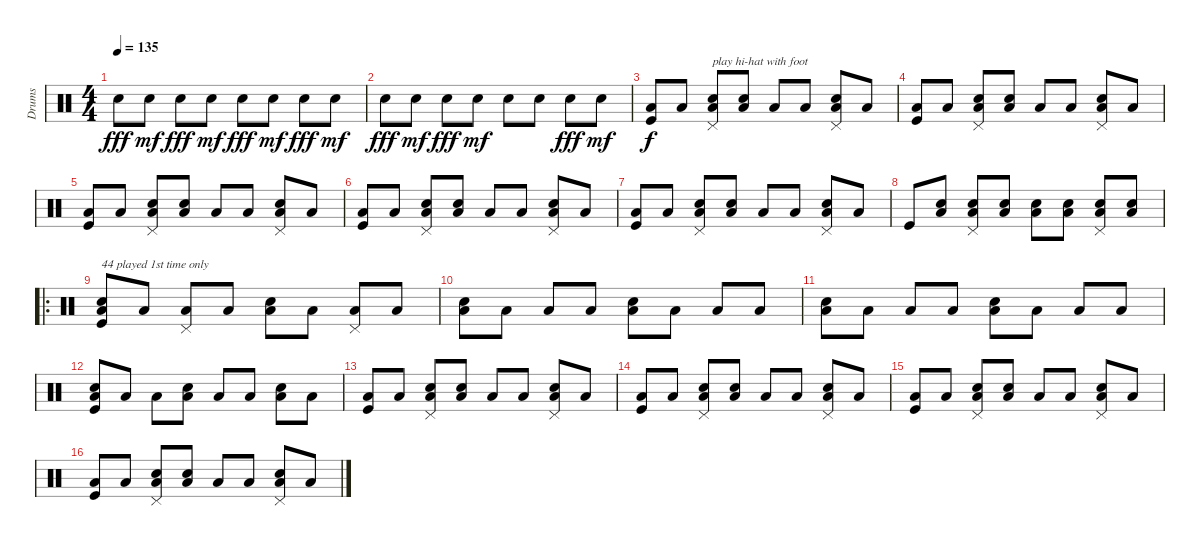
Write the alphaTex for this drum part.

\track ("Drums" "Drums") {instrument percussion}
\staff {score}
\articulation defaults
\ts (4 4)
\tempo 135
\clef neutral
\ks c "Snare (hit) 2".8{dy fff} "Snare (hit) 2".8{dy mf} "Snare (hit) 2".8{dy fff} "Snare (hit) 2".8{dy mf} "Snare (hit) 2".8{dy fff} "Snare (hit) 2".8{dy mf} "Snare (hit) 2".8{dy fff} "Snare (hit) 2".8{dy mf}
|
"Snare (hit) 2".8{dy fff} "Snare (hit) 2".8{dy mf} "Snare (hit) 2".8{dy fff} "Snare (hit) 2".8{dy mf} "Snare (hit) 2".8 "Snare (hit) 2".8 "Snare (hit) 2".8{dy fff} "Snare (hit) 2".8{dy mf} |
("Low Floor Tom (hit)" "Kick (hit)").8{dy f} "Low Floor Tom (hit)".8 ("Pedal Hi-Hat (hit)" "Snare (hit) 2" "Low Floor Tom (hit)").8{txt "play hi-hat with foot"} ("Snare (hit) 2" "Low Floor Tom (hit)").8 "Low Floor Tom (hit)".8 "Low Floor Tom (hit)".8 ("Pedal Hi-Hat (hit)" "Snare (hit) 2" "Low Floor Tom (hit)").8 "Low Floor Tom (hit)".8 |
("Low Floor Tom (hit)" "Kick (hit)").8 "Low Floor Tom (hit)".8 ("Pedal Hi-Hat (hit)" "Snare (hit) 2" "Low Floor Tom (hit)").8 ("Snare (hit) 2" "Low Floor Tom (hit)").8 "Low Floor Tom (hit)".8 "Low Floor Tom (hit)".8 ("Pedal Hi-Hat (hit)" "Snare (hit) 2" "Low Floor Tom (hit)").8 "Low Floor Tom (hit)".8 |
("Low Floor Tom (hit)" "Kick (hit)").8 "Low Floor Tom (hit)".8 ("Pedal Hi-Hat (hit)" "Snare (hit) 2" "Low Floor Tom (hit)").8 ("Snare (hit) 2" "Low Floor Tom (hit)").8 "Low Floor Tom (hit)".8 "Low Floor Tom (hit)".8 ("Pedal Hi-Hat (hit)" "Snare (hit) 2" "Low Floor Tom (hit)").8 "Low Floor Tom (hit)".8 |
("Low Floor Tom (hit)" "Kick (hit)").8 "Low Floor Tom (hit)".8 ("Pedal Hi-Hat (hit)" "Snare (hit) 2" "Low Floor Tom (hit)").8 ("Snare (hit) 2" "Low Floor Tom (hit)").8 "Low Floor Tom (hit)".8 "Low Floor Tom (hit)".8 ("Pedal Hi-Hat (hit)" "Snare (hit) 2" "Low Floor Tom (hit)").8 "Low Floor Tom (hit)".8 |
("Low Floor Tom (hit)" "Kick (hit)").8 "Low Floor Tom (hit)".8 ("Pedal Hi-Hat (hit)" "Snare (hit) 2" "Low Floor Tom (hit)").8 ("Snare (hit) 2" "Low Floor Tom (hit)").8 "Low Floor Tom (hit)".8 "Low Floor Tom (hit)".8 ("Pedal Hi-Hat (hit)" "Snare (hit) 2" "Low Floor Tom (hit)").8 "Low Floor Tom (hit)".8 |
"Kick (hit)".8 ("Snare (hit) 2" "Low Floor Tom (hit)").8 ("Pedal Hi-Hat (hit)" "Snare (hit) 2" "Low Floor Tom (hit)").8 ("Snare (hit) 2" "Low Floor Tom (hit)").8 ("Snare (hit) 2" "Low Floor Tom (hit)").8 ("Snare (hit) 2" "Low Floor Tom (hit)").8 ("Pedal Hi-Hat (hit)" "Snare (hit) 2" "Low Floor Tom (hit)").8 ("Snare (hit) 2" "Low Floor Tom (hit)").8 |
\ro
("Snare (hit) 2" "Low Floor Tom (hit)" "Kick (hit)").8{txt "44 played 1st time only"} "Low Floor Tom (hit)".8 ("Pedal Hi-Hat (hit)" "Low Floor Tom (hit)").8 "Low Floor Tom (hit)".8 ("Snare (hit) 2" "Low Floor Tom (hit)").8 "Low Floor Tom (hit)".8 ("Pedal Hi-Hat (hit)" "Low Floor Tom (hit)").8 "Low Floor Tom (hit)".8 |
("Snare (hit) 2" "Low Floor Tom (hit)").8 "Low Floor Tom (hit)".8 "Low Floor Tom (hit)".8 "Low Floor Tom (hit)".8 ("Snare (hit) 2" "Low Floor Tom (hit)").8 "Low Floor Tom (hit)".8 "Low Floor Tom (hit)".8 "Low Floor Tom (hit)".8 |
("Snare (hit) 2" "Low Floor Tom (hit)").8 "Low Floor Tom (hit)".8 "Low Floor Tom (hit)".8 "Low Floor Tom (hit)".8 ("Snare (hit) 2" "Low Floor Tom (hit)").8 "Low Floor Tom (hit)".8 "Low Floor Tom (hit)".8 "Low Floor Tom (hit)".8 |
("Snare (hit) 2" "Low Floor Tom (hit)" "Kick (hit)").8 "Low Floor Tom (hit)".8 "Low Floor Tom (hit)".8 ("Snare (hit) 2" "Low Floor Tom (hit)").8 "Low Floor Tom (hit)".8 "Low Floor Tom (hit)".8 ("Snare (hit) 2" "Low Floor Tom (hit)").8 "Low Floor Tom (hit)".8 |
("Low Floor Tom (hit)" "Kick (hit)").8 "Low Floor Tom (hit)".8 ("Pedal Hi-Hat (hit)" "Snare (hit) 2" "Low Floor Tom (hit)").8 ("Snare (hit) 2" "Low Floor Tom (hit)").8 "Low Floor Tom (hit)".8 "Low Floor Tom (hit)".8 ("Pedal Hi-Hat (hit)" "Snare (hit) 2" "Low Floor Tom (hit)").8 "Low Floor Tom (hit)".8 |
("Low Floor Tom (hit)" "Kick (hit)").8 "Low Floor Tom (hit)".8 ("Pedal Hi-Hat (hit)" "Snare (hit) 2" "Low Floor Tom (hit)").8 ("Snare (hit) 2" "Low Floor Tom (hit)").8 "Low Floor Tom (hit)".8 "Low Floor Tom (hit)".8 ("Pedal Hi-Hat (hit)" "Snare (hit) 2" "Low Floor Tom (hit)").8 "Low Floor Tom (hit)".8 |
("Low Floor Tom (hit)" "Kick (hit)").8 "Low Floor Tom (hit)".8 ("Pedal Hi-Hat (hit)" "Snare (hit) 2" "Low Floor Tom (hit)").8 ("Snare (hit) 2" "Low Floor Tom (hit)").8 "Low Floor Tom (hit)".8 "Low Floor Tom (hit)".8 ("Pedal Hi-Hat (hit)" "Snare (hit) 2" "Low Floor Tom (hit)").8 "Low Floor Tom (hit)".8 |
("Low Floor Tom (hit)" "Kick (hit)").8 "Low Floor Tom (hit)".8 ("Pedal Hi-Hat (hit)" "Snare (hit) 2" "Low Floor Tom (hit)").8 ("Snare (hit) 2" "Low Floor Tom (hit)").8 "Low Floor Tom (hit)".8 "Low Floor Tom (hit)".8 ("Pedal Hi-Hat (hit)" "Snare (hit) 2" "Low Floor Tom (hit)").8 "Low Floor Tom (hit)".8
